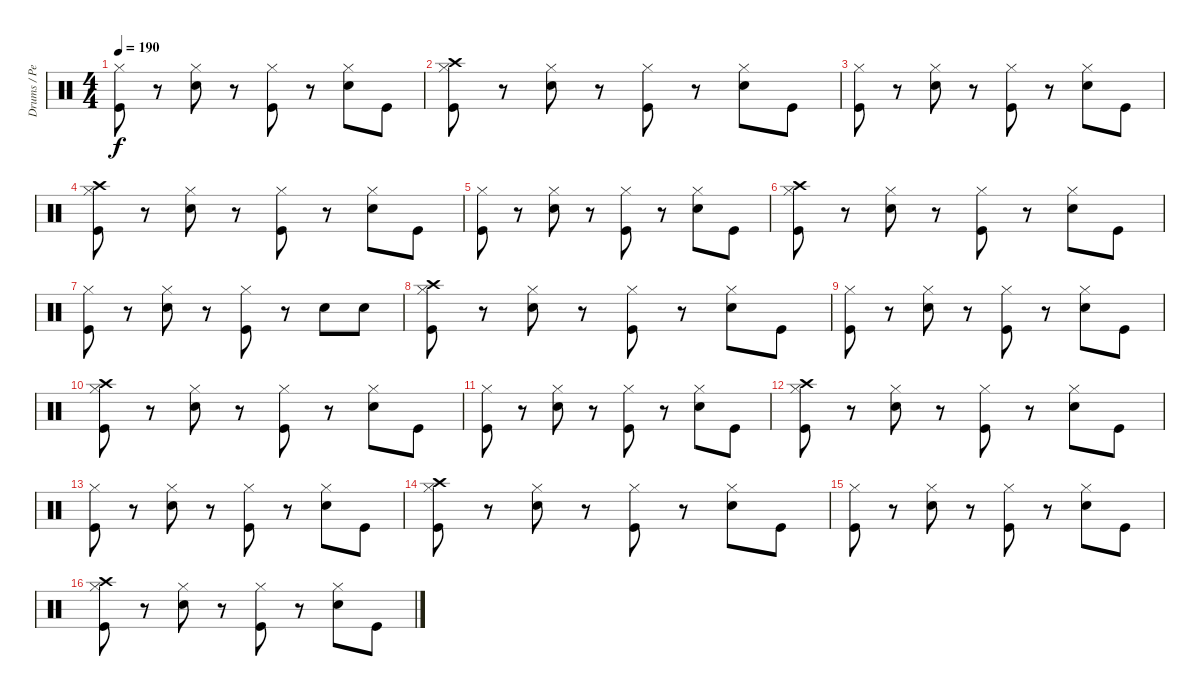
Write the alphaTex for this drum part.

\track ("Drums / Percussion" "Drums / Pe") {instrument percussion}
\staff {score}
\articulation defaults
\ts (4 4)
\tempo 190
\clef neutral
\ks c
("Hi-Hat (closed)" "Kick (hit)").8{dy f} r.8 ("Hi-Hat (closed)" "Electric Snare (hit)").8 r.8 ("Hi-Hat (closed)" "Kick (hit)").8 r.8 ("Hi-Hat (closed)" "Electric Snare (hit)").8 "Kick (hit)".8 |
("Hi-Hat (closed)" "Crash high (hit)" "Kick (hit)").8 r.8 ("Hi-Hat (closed)" "Electric Snare (hit)").8 r.8 ("Hi-Hat (closed)" "Kick (hit)").8 r.8 ("Hi-Hat (closed)" "Electric Snare (hit)").8 "Kick (hit)".8 |
("Hi-Hat (closed)" "Kick (hit)").8 r.8 ("Hi-Hat (closed)" "Electric Snare (hit)").8 r.8 ("Hi-Hat (closed)" "Kick (hit)").8 r.8 ("Hi-Hat (closed)" "Electric Snare (hit)").8 "Kick (hit)".8 |
("Hi-Hat (closed)" "Crash high (hit)" "Kick (hit)").8 r.8 ("Hi-Hat (closed)" "Electric Snare (hit)").8 r.8 ("Hi-Hat (closed)" "Kick (hit)").8 r.8 ("Hi-Hat (closed)" "Electric Snare (hit)").8 "Kick (hit)".8 |
("Hi-Hat (closed)" "Kick (hit)").8 r.8 ("Hi-Hat (closed)" "Electric Snare (hit)").8 r.8 ("Hi-Hat (closed)" "Kick (hit)").8 r.8 ("Hi-Hat (closed)" "Electric Snare (hit)").8 "Kick (hit)".8 |
("Hi-Hat (closed)" "Crash high (hit)" "Kick (hit)").8 r.8 ("Hi-Hat (closed)" "Electric Snare (hit)").8 r.8 ("Hi-Hat (closed)" "Kick (hit)").8 r.8 ("Hi-Hat (closed)" "Electric Snare (hit)").8 "Kick (hit)".8 |
("Hi-Hat (closed)" "Kick (hit)").8 r.8 ("Hi-Hat (closed)" "Electric Snare (hit)").8 r.8 ("Hi-Hat (closed)" "Kick (hit)").8 r.8 "Electric Snare (hit)".8 "Electric Snare (hit)".8 |
("Hi-Hat (closed)" "Crash high (hit)" "Kick (hit)").8 r.8 ("Hi-Hat (closed)" "Electric Snare (hit)").8 r.8 ("Hi-Hat (closed)" "Kick (hit)").8 r.8 ("Hi-Hat (closed)" "Electric Snare (hit)").8 "Kick (hit)".8 |
("Hi-Hat (closed)" "Kick (hit)").8 r.8 ("Hi-Hat (closed)" "Electric Snare (hit)").8 r.8 ("Hi-Hat (closed)" "Kick (hit)").8 r.8 ("Hi-Hat (closed)" "Electric Snare (hit)").8 "Kick (hit)".8 |
("Hi-Hat (closed)" "Crash high (hit)" "Kick (hit)").8 r.8 ("Hi-Hat (closed)" "Electric Snare (hit)").8 r.8 ("Hi-Hat (closed)" "Kick (hit)").8 r.8 ("Hi-Hat (closed)" "Electric Snare (hit)").8 "Kick (hit)".8 |
("Hi-Hat (closed)" "Kick (hit)").8 r.8 ("Hi-Hat (closed)" "Electric Snare (hit)").8 r.8 ("Hi-Hat (closed)" "Kick (hit)").8 r.8 ("Hi-Hat (closed)" "Electric Snare (hit)").8 "Kick (hit)".8 |
("Hi-Hat (closed)" "Crash high (hit)" "Kick (hit)").8 r.8 ("Hi-Hat (closed)" "Electric Snare (hit)").8 r.8 ("Hi-Hat (closed)" "Kick (hit)").8 r.8 ("Hi-Hat (closed)" "Electric Snare (hit)").8 "Kick (hit)".8 |
("Hi-Hat (closed)" "Kick (hit)").8 r.8 ("Hi-Hat (closed)" "Electric Snare (hit)").8 r.8 ("Hi-Hat (closed)" "Kick (hit)").8 r.8 ("Hi-Hat (closed)" "Electric Snare (hit)").8 "Kick (hit)".8 |
("Hi-Hat (closed)" "Crash high (hit)" "Kick (hit)").8 r.8 ("Hi-Hat (closed)" "Electric Snare (hit)").8 r.8 ("Hi-Hat (closed)" "Kick (hit)").8 r.8 ("Hi-Hat (closed)" "Electric Snare (hit)").8 "Kick (hit)".8 |
("Hi-Hat (closed)" "Kick (hit)").8 r.8 ("Hi-Hat (closed)" "Electric Snare (hit)").8 r.8 ("Hi-Hat (closed)" "Kick (hit)").8 r.8 ("Hi-Hat (closed)" "Electric Snare (hit)").8 "Kick (hit)".8 |
("Hi-Hat (closed)" "Crash high (hit)" "Kick (hit)").8 r.8 ("Hi-Hat (closed)" "Electric Snare (hit)").8 r.8 ("Hi-Hat (closed)" "Kick (hit)").8 r.8 ("Hi-Hat (closed)" "Electric Snare (hit)").8 "Kick (hit)".8
